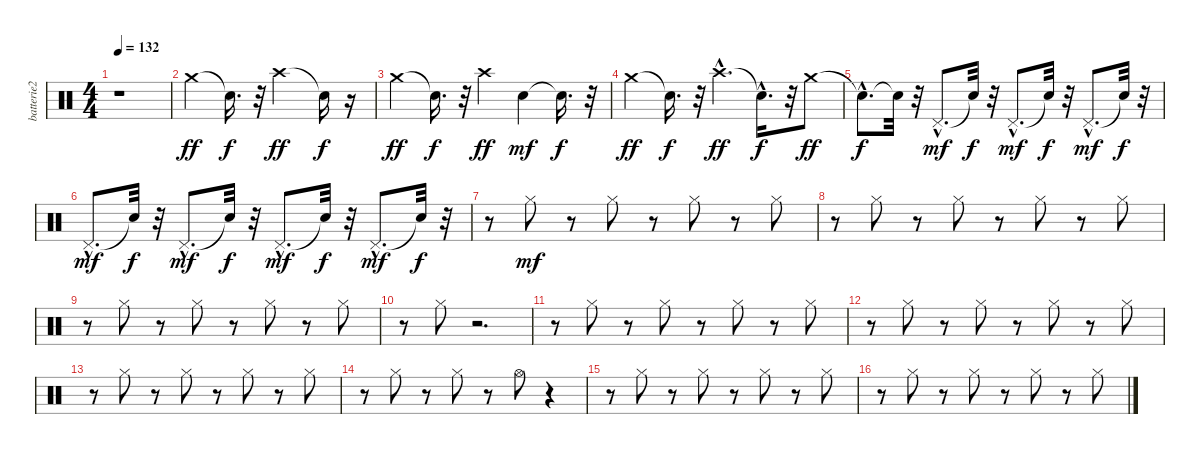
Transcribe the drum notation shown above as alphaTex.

\track ("batterie2" "batterie2") {instrument percussion}
\staff {score}
\articulation defaults
\ts (4 4)
\tempo 132
\clef neutral
\ks c
r.1{dy ff} |
"Crash medium (hit)".4 "Snare (hit)"{t}.16{d dy f} r.32 "Crash high (hit)".2{dy ff} "Snare (hit)"{t}.16{dy f} r.16 |
"Crash medium (hit)".4{dy ff} "Snare (hit)"{t}.16{d dy f} r.32 "Crash high (hit)".4{dy ff} "Electric Snare (hit)".4{dy mf} "Snare (hit)"{t}.16{d dy f} r.32 |
"Crash medium (hit)".4{dy ff} "Snare (hit)"{t}.16{d dy f} r.32 "Crash high (hit)"{hac}.4{d dy ff} "Snare (hit)"{hac t}.16{d dy f} r.32 "Crash medium (hit)".8{dy ff} |
"Snare (hit)"{hac t}.8{d dy f} "Snare (hit)"{t}.32 r.32 "Pedal Hi-Hat (hit)"{hac}.8{d dy mf} "Snare (hit)"{t}.32{dy f} r.32 "Pedal Hi-Hat (hit)"{hac}.8{d dy mf} "Snare (hit)"{t}.32{dy f} r.32 "Pedal Hi-Hat (hit)"{hac}.8{d dy mf} "Snare (hit)"{t}.32{dy f} r.32 |
"Pedal Hi-Hat (hit)"{hac}.8{d dy mf} "Snare (hit)"{t}.32{dy f} r.32 "Pedal Hi-Hat (hit)"{hac}.8{d dy mf} "Snare (hit)"{t}.32{dy f} r.32 "Pedal Hi-Hat (hit)"{hac}.8{d dy mf} "Snare (hit)"{t}.32{dy f} r.32 "Pedal Hi-Hat (hit)"{hac}.8{d dy mf} "Snare (hit)"{t}.32{dy f} r.32 |
r.8 "Hi-Hat (closed)".8{dy mf} r.8 "Hi-Hat (closed)".8 r.8 "Hi-Hat (closed)".8 r.8 "Hi-Hat (closed)".8 |
r.8 "Hi-Hat (closed)".8 r.8 "Hi-Hat (closed)".8 r.8 "Hi-Hat (closed)".8 r.8 "Hi-Hat (closed)".8 |
r.8 "Hi-Hat (closed)".8 r.8 "Hi-Hat (closed)".8 r.8 "Hi-Hat (closed)".8 r.8 "Hi-Hat (closed)".8 |
r.8 "Hi-Hat (closed)".8 r.2{d} |
r.8 "Hi-Hat (closed)".8 r.8 "Hi-Hat (closed)".8 r.8 "Hi-Hat (closed)".8 r.8 "Hi-Hat (closed)".8 |
r.8 "Hi-Hat (closed)".8 r.8 "Hi-Hat (closed)".8 r.8 "Hi-Hat (closed)".8 r.8 "Hi-Hat (closed)".8 |
r.8 "Hi-Hat (closed)".8 r.8 "Hi-Hat (closed)".8 r.8 "Hi-Hat (closed)".8 r.8 "Hi-Hat (closed)".8 |
r.8 "Hi-Hat (closed)".8 r.8 "Hi-Hat (closed)".8 r.8 "Hi-Hat (open)".8 r.4 |
r.8 "Hi-Hat (closed)".8 r.8 "Hi-Hat (closed)".8 r.8 "Hi-Hat (closed)".8 r.8 "Hi-Hat (closed)".8 |
r.8 "Hi-Hat (closed)".8 r.8 "Hi-Hat (closed)".8 r.8 "Hi-Hat (closed)".8 r.8 "Hi-Hat (closed)".8
